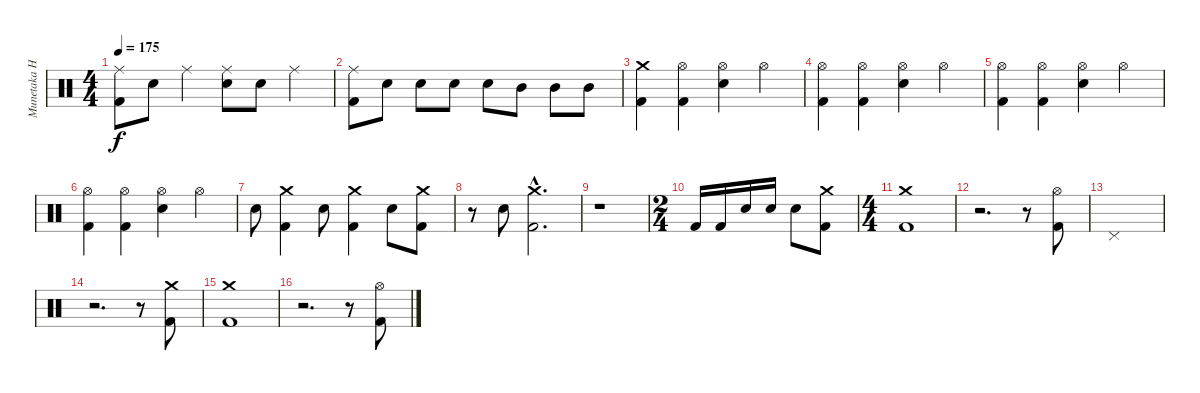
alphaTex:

\track ("Munetaka Higuchi" "Munetaka H") {instrument percussion}
\staff {score}
\articulation defaults
\ts (4 4)
\tempo 175
\clef neutral
\ks c
("Ride (middle)" "Kick (hit) 2").8{dy f} "Electric Snare (hit)".8 "Ride (middle)".4 ("Ride (middle)" "Electric Snare (hit)").8 "Electric Snare (hit)".8 "Ride (middle)".4 |
("Ride (middle)" "Kick (hit) 2").8 "Electric Snare (hit)".8 "Electric Snare (hit)".8 "Electric Snare (hit)".8 "Electric Snare (hit)".8 "Mid Tom (hit)".8 "Mid Tom (hit)".8 "Mid Tom (hit)".8 |
("Crash medium (hit)" "Kick (hit) 2").4 ("Hi-Hat (open)" "Kick (hit) 2").4 ("Hi-Hat (open)" "Electric Snare (hit)").4 "Hi-Hat (open)".4 |
("Hi-Hat (open)" "Kick (hit) 2").4 ("Hi-Hat (open)" "Kick (hit) 2").4 ("Hi-Hat (open)" "Electric Snare (hit)").4 "Hi-Hat (open)".4 |
("Hi-Hat (open)" "Kick (hit) 2").4 ("Hi-Hat (open)" "Kick (hit) 2").4 ("Hi-Hat (open)" "Electric Snare (hit)").4 "Hi-Hat (open)".4 |
("Hi-Hat (open)" "Kick (hit) 2").4 ("Hi-Hat (open)" "Kick (hit) 2").4 ("Hi-Hat (open)" "Electric Snare (hit)").4 "Hi-Hat (open)".4 |
"Electric Snare (hit)".8 ("Crash medium (hit)" "Kick (hit) 2").4 "Electric Snare (hit)".8 ("Crash medium (hit)" "Kick (hit) 2").4 "Electric Snare (hit)".8 ("Crash medium (hit)" "Kick (hit) 2").8 |
r.8 "Electric Snare (hit)".8 ("Crash medium (hit)"{hac} "Kick (hit) 2"{hac}).2{d} |
r.1 |
\ts (2 4)
"Kick (hit) 2".16 "Kick (hit) 2".16 "Electric Snare (hit)".16 "Electric Snare (hit)".16 "Electric Snare (hit)".8 ("Crash medium (hit)" "Kick (hit) 2").8 |
\ts (4 4)
("Crash medium (hit)" "Kick (hit) 2").1 |
r.2{d} r.8 ("Hi-Hat (open)" "Kick (hit) 2").8 |
"Pedal Hi-Hat (hit)".1 |
r.2{d} r.8 ("Crash medium (hit)" "Kick (hit) 2").8 |
("Crash medium (hit)" "Kick (hit) 2").1 |
r.2{d} r.8 ("Hi-Hat (open)" "Kick (hit) 2").8
